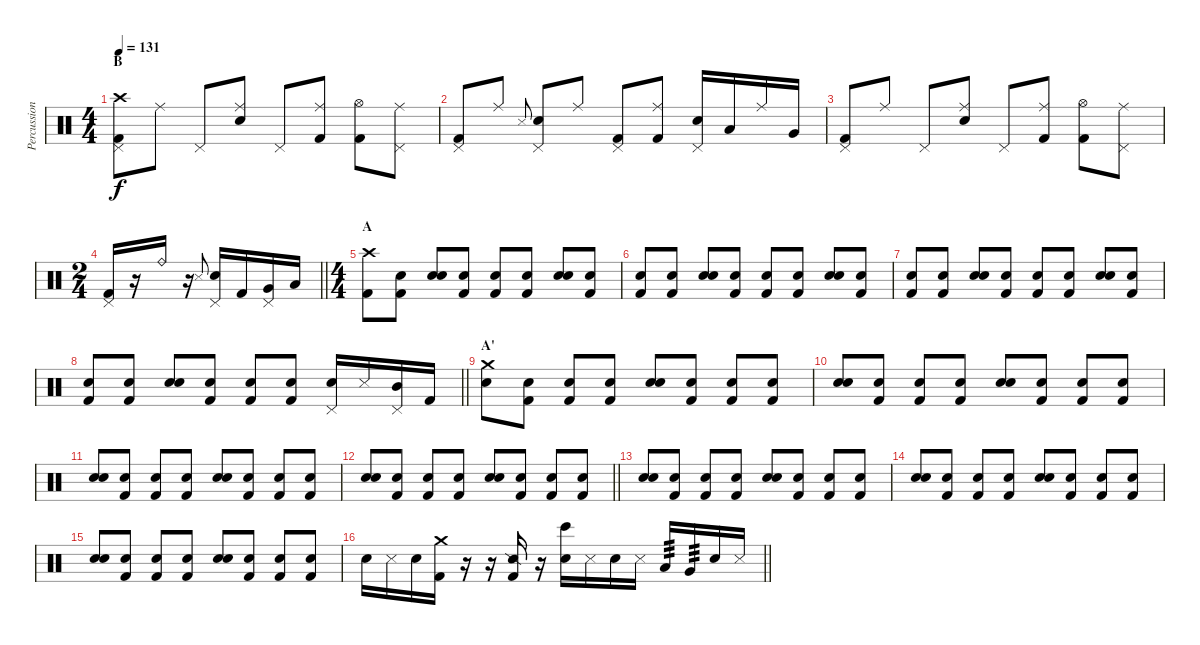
\track ("Percussion" "Percussion") {instrument percussion}
\staff {score}
\articulation defaults
\ts (4 4)
\section ("" "B")
\tempo 131
\clef neutral
\ks c
("Crash high (hit)" "Pedal Hi-Hat (hit)" "Kick (hit) 2").8{dy f} "Ride (middle)".8 "Pedal Hi-Hat (hit)".8 ("Ride (middle)" "Snare (hit) 2").8 "Pedal Hi-Hat (hit)".8 ("Ride (middle)" "Kick (hit) 2").8 ("Hi-Hat (open)" "Kick (hit) 2").8 ("Ride (middle)" "Pedal Hi-Hat (hit)").8 |
("Pedal Hi-Hat (hit)" "Kick (hit) 2").8 "Ride (middle)".8 "Metronome (hit)".8{gr onbeat} ("Pedal Hi-Hat (hit)" "Snare (hit) 2").8 "Ride (middle)".8 ("Pedal Hi-Hat (hit)" "Kick (hit) 2").8 ("Ride (middle)" "Kick (hit) 2").8 ("Pedal Hi-Hat (hit)" "Snare (hit) 2").16 "Low Tom (hit)".16 "Ride (middle)".16 "Very Low Tom (hit)".16 |
("Pedal Hi-Hat (hit)" "Kick (hit) 2").8 "Ride (middle)".8 "Pedal Hi-Hat (hit)".8 ("Ride (middle)" "Snare (hit) 2").8 "Pedal Hi-Hat (hit)".8 ("Ride (middle)" "Kick (hit) 2").8 ("Hi-Hat (open)" "Kick (hit) 2").8 ("Ride (middle)" "Pedal Hi-Hat (hit)").8 |
\ts (2 4)
\barLineRight lightlight
("Pedal Hi-Hat (hit)" "Kick (hit) 2").16 r.16 "Ride (bell)".16 r.16 "Metronome (hit)".8{gr onbeat} ("Pedal Hi-Hat (hit)" "Snare (hit) 2").16 "Kick (hit) 2".16 ("Pedal Hi-Hat (hit)" "Very Low Tom (hit)").16 "Low Floor Tom (hit)".16 |
\ts (4 4)
\section ("" "A")
("Crash high (hit)" "Kick (hit) 2").8 ("Snare (hit)" "Kick (hit) 2").8 ("Snare (hit)" "Snare (hit) 2").8 ("Snare (hit)" "Kick (hit) 2").8 ("Snare (hit)" "Kick (hit) 2").8 ("Snare (hit)" "Kick (hit) 2").8 ("Snare (hit)" "Snare (hit) 2").8 ("Snare (hit)" "Kick (hit) 2").8 |
("Snare (hit)" "Kick (hit) 2").8 ("Snare (hit)" "Kick (hit) 2").8 ("Snare (hit)" "Snare (hit) 2").8 ("Snare (hit)" "Kick (hit) 2").8 ("Snare (hit)" "Kick (hit) 2").8 ("Snare (hit)" "Kick (hit) 2").8 ("Snare (hit)" "Snare (hit) 2").8 ("Snare (hit)" "Kick (hit) 2").8 |
("Snare (hit)" "Kick (hit) 2").8 ("Snare (hit)" "Kick (hit) 2").8 ("Snare (hit)" "Snare (hit) 2").8 ("Snare (hit)" "Kick (hit) 2").8 ("Snare (hit)" "Kick (hit) 2").8 ("Snare (hit)" "Kick (hit) 2").8 ("Snare (hit)" "Snare (hit) 2").8 ("Snare (hit)" "Kick (hit) 2").8 |
\barLineRight lightlight
("Snare (hit)" "Kick (hit) 2").8 ("Snare (hit)" "Kick (hit) 2").8 ("Snare (hit)" "Snare (hit) 2").8 ("Snare (hit)" "Kick (hit) 2").8 ("Snare (hit)" "Kick (hit) 2").8 ("Snare (hit)" "Kick (hit) 2").8 ("Pedal Hi-Hat (hit)" "Snare (hit) 2").16 "Metronome (hit)".16 ("Pedal Hi-Hat (hit)" "Mid Tom (hit)").16 "Kick (hit) 2".16 |
\section ("" "A'")
("Crash medium (hit)" "Snare (hit) 2").8 ("Snare (hit)" "Kick (hit) 2").8 ("Snare (hit)" "Kick (hit) 2").8 ("Snare (hit)" "Kick (hit) 2").8 ("Snare (hit)" "Snare (hit) 2").8 ("Snare (hit)" "Kick (hit) 2").8 ("Snare (hit)" "Kick (hit) 2").8 ("Snare (hit)" "Kick (hit) 2").8 |
("Snare (hit)" "Snare (hit) 2").8 ("Snare (hit)" "Kick (hit) 2").8 ("Snare (hit)" "Kick (hit) 2").8 ("Snare (hit)" "Kick (hit) 2").8 ("Snare (hit)" "Snare (hit) 2").8 ("Snare (hit)" "Kick (hit) 2").8 ("Snare (hit)" "Kick (hit) 2").8 ("Snare (hit)" "Kick (hit) 2").8 |
("Snare (hit)" "Snare (hit) 2").8 ("Snare (hit)" "Kick (hit) 2").8 ("Snare (hit)" "Kick (hit) 2").8 ("Snare (hit)" "Kick (hit) 2").8 ("Snare (hit)" "Snare (hit) 2").8 ("Snare (hit)" "Kick (hit) 2").8 ("Snare (hit)" "Kick (hit) 2").8 ("Snare (hit)" "Kick (hit) 2").8 |
\barLineRight lightlight
("Snare (hit)" "Snare (hit) 2").8 ("Snare (hit)" "Kick (hit) 2").8 ("Snare (hit)" "Kick (hit) 2").8 ("Snare (hit)" "Kick (hit) 2").8 ("Snare (hit)" "Snare (hit) 2").8 ("Snare (hit)" "Kick (hit) 2").8 ("Snare (hit)" "Kick (hit) 2").8 ("Snare (hit)" "Kick (hit) 2").8 |
("Snare (hit)" "Snare (hit) 2").8 ("Snare (hit)" "Kick (hit) 2").8 ("Snare (hit)" "Kick (hit) 2").8 ("Snare (hit)" "Kick (hit) 2").8 ("Snare (hit)" "Snare (hit) 2").8 ("Snare (hit)" "Kick (hit) 2").8 ("Snare (hit)" "Kick (hit) 2").8 ("Snare (hit)" "Kick (hit) 2").8 |
("Snare (hit)" "Snare (hit) 2").8 ("Snare (hit)" "Kick (hit) 2").8 ("Snare (hit)" "Kick (hit) 2").8 ("Snare (hit)" "Kick (hit) 2").8 ("Snare (hit)" "Snare (hit) 2").8 ("Snare (hit)" "Kick (hit) 2").8 ("Snare (hit)" "Kick (hit) 2").8 ("Snare (hit)" "Kick (hit) 2").8 |
("Snare (hit)" "Snare (hit) 2").8 ("Snare (hit)" "Kick (hit) 2").8 ("Snare (hit)" "Kick (hit) 2").8 ("Snare (hit)" "Kick (hit) 2").8 ("Snare (hit)" "Snare (hit) 2").8 ("Snare (hit)" "Kick (hit) 2").8 ("Snare (hit)" "Kick (hit) 2").8 ("Snare (hit)" "Kick (hit) 2").8 |
\barLineRight lightlight "Snare (hit) 2".16 "Metronome (hit)".16 "Snare (hit) 2".16
("Crash medium (hit)" "Kick (hit) 2").16 r.16 r.16 ("Snare (side stick) 2" "Kick (hit) 2").16 r.16 ("Bongo High (hit)" "Snare (hit) 2").16 "Metronome (hit)".16 "Snare (hit) 2".16 "Metronome (hit)".16 "Low Tom (hit)".16{tp 3} "Very Low Tom (hit)".16{tp 3} "Snare (hit) 2".16 "Metronome (hit)".16
